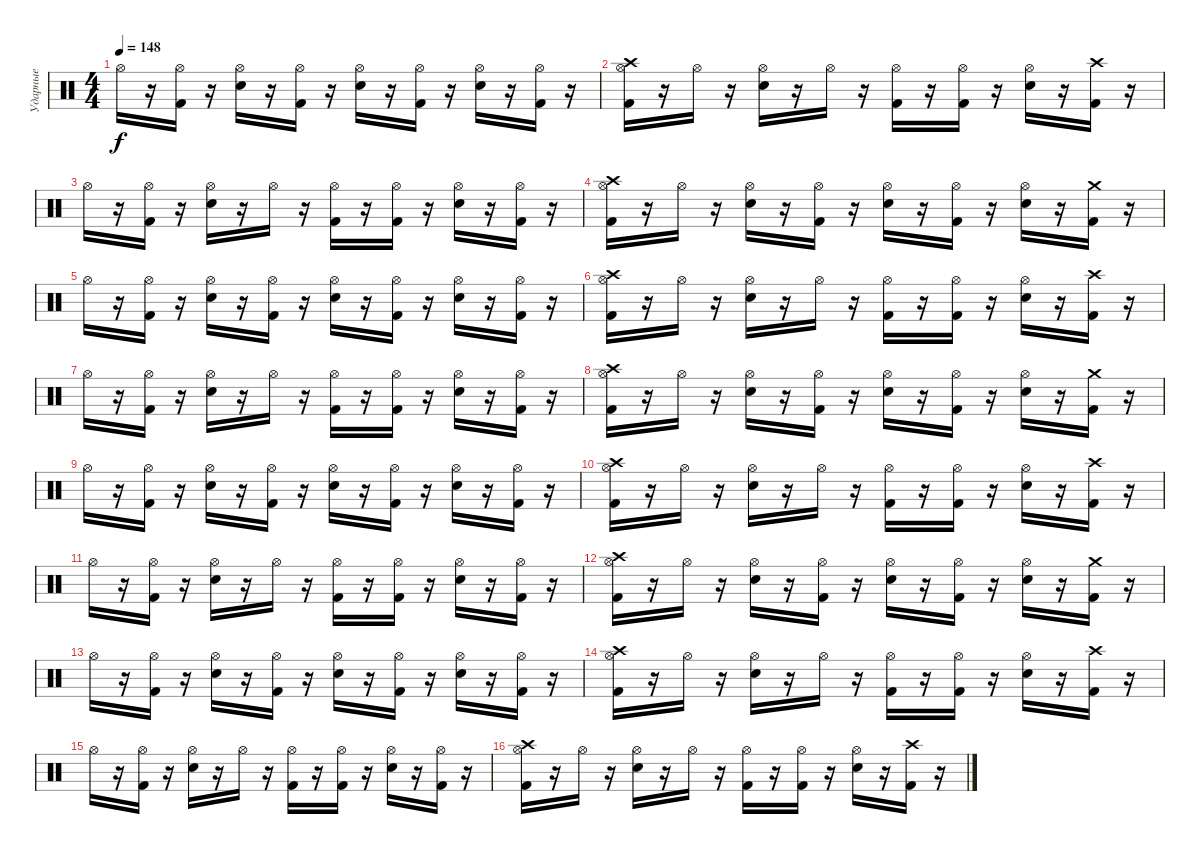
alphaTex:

\track ("Ударные" "Ударные") {instrument percussion}
\staff {score}
\articulation defaults
\ts (4 4)
\tempo 148
\clef neutral
\ks c "Hi-Hat (open)".16{dy f}
r.16 ("Hi-Hat (open)" "Kick (hit) 2").16 r.16 ("Hi-Hat (open)" "Electric Snare (hit)").16 r.16 ("Hi-Hat (open)" "Kick (hit) 2").16 r.16 ("Hi-Hat (open)" "Electric Snare (hit)").16 r.16 ("Hi-Hat (open)" "Kick (hit) 2").16 r.16 ("Hi-Hat (open)" "Electric Snare (hit)").16 r.16 ("Hi-Hat (open)" "Kick (hit) 2").16 r.16 |
("Crash high (hit)" "Hi-Hat (open)" "Kick (hit) 2").16 r.16 "Hi-Hat (open)".16 r.16 ("Hi-Hat (open)" "Electric Snare (hit)").16 r.16 "Hi-Hat (open)".16 r.16 ("Hi-Hat (open)" "Kick (hit) 2").16 r.16 ("Hi-Hat (open)" "Kick (hit) 2").16 r.16 ("Hi-Hat (open)" "Electric Snare (hit)").16 r.16 ("Crash high (hit)" "Kick (hit) 2").16 r.16 |
"Hi-Hat (open)".16 r.16 ("Hi-Hat (open)" "Kick (hit) 2").16 r.16 ("Hi-Hat (open)" "Electric Snare (hit)").16 r.16 "Hi-Hat (open)".16 r.16 ("Hi-Hat (open)" "Kick (hit) 2").16 r.16 ("Hi-Hat (open)" "Kick (hit) 2").16 r.16 ("Hi-Hat (open)" "Electric Snare (hit)").16 r.16 ("Hi-Hat (open)" "Kick (hit) 2").16 r.16 |
("Crash high (hit)" "Hi-Hat (open)" "Kick (hit) 2").16 r.16 "Hi-Hat (open)".16 r.16 ("Hi-Hat (open)" "Electric Snare (hit)").16 r.16 ("Hi-Hat (open)" "Kick (hit) 2").16 r.16 ("Hi-Hat (open)" "Electric Snare (hit)").16 r.16 ("Hi-Hat (open)" "Kick (hit) 2").16 r.16 ("Hi-Hat (open)" "Electric Snare (hit)").16 r.16 ("Crash medium (hit)" "Kick (hit) 2").16 r.16 |
"Hi-Hat (open)".16 r.16 ("Hi-Hat (open)" "Kick (hit) 2").16 r.16 ("Hi-Hat (open)" "Electric Snare (hit)").16 r.16 ("Hi-Hat (open)" "Kick (hit) 2").16 r.16 ("Hi-Hat (open)" "Electric Snare (hit)").16 r.16 ("Hi-Hat (open)" "Kick (hit) 2").16 r.16 ("Hi-Hat (open)" "Electric Snare (hit)").16 r.16 ("Hi-Hat (open)" "Kick (hit) 2").16 r.16 |
("Crash high (hit)" "Hi-Hat (open)" "Kick (hit) 2").16 r.16 "Hi-Hat (open)".16 r.16 ("Hi-Hat (open)" "Electric Snare (hit)").16 r.16 "Hi-Hat (open)".16 r.16 ("Hi-Hat (open)" "Kick (hit) 2").16 r.16 ("Hi-Hat (open)" "Kick (hit) 2").16 r.16 ("Hi-Hat (open)" "Electric Snare (hit)").16 r.16 ("Crash high (hit)" "Kick (hit) 2").16 r.16 |
"Hi-Hat (open)".16 r.16 ("Hi-Hat (open)" "Kick (hit) 2").16 r.16 ("Hi-Hat (open)" "Electric Snare (hit)").16 r.16 "Hi-Hat (open)".16 r.16 ("Hi-Hat (open)" "Kick (hit) 2").16 r.16 ("Hi-Hat (open)" "Kick (hit) 2").16 r.16 ("Hi-Hat (open)" "Electric Snare (hit)").16 r.16 ("Hi-Hat (open)" "Kick (hit) 2").16 r.16 |
("Crash high (hit)" "Hi-Hat (open)" "Kick (hit) 2").16 r.16 "Hi-Hat (open)".16 r.16 ("Hi-Hat (open)" "Electric Snare (hit)").16 r.16 ("Hi-Hat (open)" "Kick (hit) 2").16 r.16 ("Hi-Hat (open)" "Electric Snare (hit)").16 r.16 ("Hi-Hat (open)" "Kick (hit) 2").16 r.16 ("Hi-Hat (open)" "Electric Snare (hit)").16 r.16 ("Crash medium (hit)" "Kick (hit) 2").16 r.16 |
"Hi-Hat (open)".16 r.16 ("Hi-Hat (open)" "Kick (hit) 2").16 r.16 ("Hi-Hat (open)" "Electric Snare (hit)").16 r.16 ("Hi-Hat (open)" "Kick (hit) 2").16 r.16 ("Hi-Hat (open)" "Electric Snare (hit)").16 r.16 ("Hi-Hat (open)" "Kick (hit) 2").16 r.16 ("Hi-Hat (open)" "Electric Snare (hit)").16 r.16 ("Hi-Hat (open)" "Kick (hit) 2").16 r.16 |
("Crash high (hit)" "Hi-Hat (open)" "Kick (hit) 2").16 r.16 "Hi-Hat (open)".16 r.16 ("Hi-Hat (open)" "Electric Snare (hit)").16 r.16 "Hi-Hat (open)".16 r.16 ("Hi-Hat (open)" "Kick (hit) 2").16 r.16 ("Hi-Hat (open)" "Kick (hit) 2").16 r.16 ("Hi-Hat (open)" "Electric Snare (hit)").16 r.16 ("Crash high (hit)" "Kick (hit) 2").16 r.16 |
"Hi-Hat (open)".16 r.16 ("Hi-Hat (open)" "Kick (hit) 2").16 r.16 ("Hi-Hat (open)" "Electric Snare (hit)").16 r.16 "Hi-Hat (open)".16 r.16 ("Hi-Hat (open)" "Kick (hit) 2").16 r.16 ("Hi-Hat (open)" "Kick (hit) 2").16 r.16 ("Hi-Hat (open)" "Electric Snare (hit)").16 r.16 ("Hi-Hat (open)" "Kick (hit) 2").16 r.16 |
("Crash high (hit)" "Hi-Hat (open)" "Kick (hit) 2").16 r.16 "Hi-Hat (open)".16 r.16 ("Hi-Hat (open)" "Electric Snare (hit)").16 r.16 ("Hi-Hat (open)" "Kick (hit) 2").16 r.16 ("Hi-Hat (open)" "Electric Snare (hit)").16 r.16 ("Hi-Hat (open)" "Kick (hit) 2").16 r.16 ("Hi-Hat (open)" "Electric Snare (hit)").16 r.16 ("Crash medium (hit)" "Kick (hit) 2").16 r.16 |
"Hi-Hat (open)".16 r.16 ("Hi-Hat (open)" "Kick (hit) 2").16 r.16 ("Hi-Hat (open)" "Electric Snare (hit)").16 r.16 ("Hi-Hat (open)" "Kick (hit) 2").16 r.16 ("Hi-Hat (open)" "Electric Snare (hit)").16 r.16 ("Hi-Hat (open)" "Kick (hit) 2").16 r.16 ("Hi-Hat (open)" "Electric Snare (hit)").16 r.16 ("Hi-Hat (open)" "Kick (hit) 2").16 r.16 |
("Crash high (hit)" "Hi-Hat (open)" "Kick (hit) 2").16 r.16 "Hi-Hat (open)".16 r.16 ("Hi-Hat (open)" "Electric Snare (hit)").16 r.16 "Hi-Hat (open)".16 r.16 ("Hi-Hat (open)" "Kick (hit) 2").16 r.16 ("Hi-Hat (open)" "Kick (hit) 2").16 r.16 ("Hi-Hat (open)" "Electric Snare (hit)").16 r.16 ("Crash high (hit)" "Kick (hit) 2").16 r.16 |
"Hi-Hat (open)".16 r.16 ("Hi-Hat (open)" "Kick (hit) 2").16 r.16 ("Hi-Hat (open)" "Electric Snare (hit)").16 r.16 "Hi-Hat (open)".16 r.16 ("Hi-Hat (open)" "Kick (hit) 2").16 r.16 ("Hi-Hat (open)" "Kick (hit) 2").16 r.16 ("Hi-Hat (open)" "Electric Snare (hit)").16 r.16 ("Hi-Hat (open)" "Kick (hit) 2").16 r.16 |
("Crash high (hit)" "Hi-Hat (open)" "Kick (hit) 2").16 r.16 "Hi-Hat (open)".16 r.16 ("Hi-Hat (open)" "Electric Snare (hit)").16 r.16 "Hi-Hat (open)".16 r.16 ("Hi-Hat (open)" "Kick (hit) 2").16 r.16 ("Hi-Hat (open)" "Kick (hit) 2").16 r.16 ("Hi-Hat (open)" "Electric Snare (hit)").16 r.16 ("Crash high (hit)" "Kick (hit) 2").16 r.16
